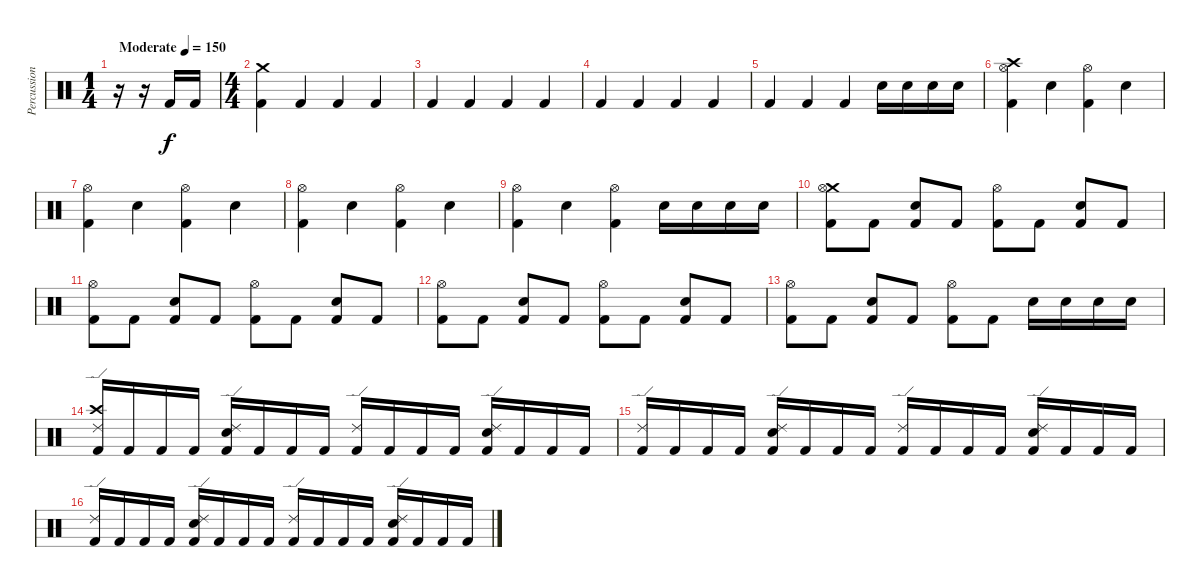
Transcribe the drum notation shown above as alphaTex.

\track ("Percussion" "Percussion") {instrument percussion}
\staff {score}
\articulation defaults
\ts (1 4)
\tempo (150 "Moderate")
\clef neutral
\ks c
r.16{dy f} r.16 "Kick (hit) 2".16 "Kick (hit) 2".16 |
\ts (4 4)
("Crash medium (hit)" "Kick (hit) 2").4 "Kick (hit) 2".4 "Kick (hit) 2".4 "Kick (hit) 2".4 |
"Kick (hit) 2".4 "Kick (hit) 2".4 "Kick (hit) 2".4 "Kick (hit) 2".4 |
"Kick (hit) 2".4 "Kick (hit) 2".4 "Kick (hit) 2".4 "Kick (hit) 2".4 |
"Kick (hit) 2".4 "Kick (hit) 2".4 "Kick (hit) 2".4 "Snare (hit) 2".16 "Snare (hit) 2".16 "Snare (hit) 2".16 "Snare (hit) 2".16 |
("Crash high (hit)" "Hi-Hat (open)" "Kick (hit) 2").4 "Snare (hit) 2".4 ("Hi-Hat (open)" "Kick (hit) 2").4 "Snare (hit) 2".4 |
("Hi-Hat (open)" "Kick (hit) 2").4 "Snare (hit) 2".4 ("Hi-Hat (open)" "Kick (hit) 2").4 "Snare (hit) 2".4 |
("Hi-Hat (open)" "Kick (hit) 2").4 "Snare (hit) 2".4 ("Hi-Hat (open)" "Kick (hit) 2").4 "Snare (hit) 2".4 |
("Hi-Hat (open)" "Kick (hit) 2").4 "Snare (hit) 2".4 ("Hi-Hat (open)" "Kick (hit) 2").4 "Snare (hit) 2".16 "Snare (hit) 2".16 "Snare (hit) 2".16 "Snare (hit) 2".16 |
("Crash medium (hit)" "Hi-Hat (open)" "Kick (hit) 2").8 "Kick (hit) 2".8 ("Snare (hit) 2" "Kick (hit) 2").8 "Kick (hit) 2".8 ("Hi-Hat (open)" "Kick (hit) 2").8 "Kick (hit) 2".8 ("Snare (hit) 2" "Kick (hit) 2").8 "Kick (hit) 2".8 |
("Hi-Hat (open)" "Kick (hit) 2").8 "Kick (hit) 2".8 ("Snare (hit) 2" "Kick (hit) 2").8 "Kick (hit) 2".8 ("Hi-Hat (open)" "Kick (hit) 2").8 "Kick (hit) 2".8 ("Snare (hit) 2" "Kick (hit) 2").8 "Kick (hit) 2".8 |
("Hi-Hat (open)" "Kick (hit) 2").8 "Kick (hit) 2".8 ("Snare (hit) 2" "Kick (hit) 2").8 "Kick (hit) 2".8 ("Hi-Hat (open)" "Kick (hit) 2").8 "Kick (hit) 2".8 ("Snare (hit) 2" "Kick (hit) 2").8 "Kick (hit) 2".8 |
("Hi-Hat (open)" "Kick (hit) 2").8 "Kick (hit) 2".8 ("Snare (hit) 2" "Kick (hit) 2").8 "Kick (hit) 2".8 ("Hi-Hat (open)" "Kick (hit) 2").8 "Kick (hit) 2".8 "Snare (hit) 2".16 "Snare (hit) 2".16 "Snare (hit) 2".16 "Snare (hit) 2".16 |
("Ride (edge) 2" "Crash high (hit)" "Kick (hit) 2").16 "Kick (hit) 2".16 "Kick (hit) 2".16 "Kick (hit) 2".16 ("Ride (edge) 2" "Snare (hit) 2" "Kick (hit) 2").16 "Kick (hit) 2".16 "Kick (hit) 2".16 "Kick (hit) 2".16 ("Ride (edge) 2" "Kick (hit) 2").16 "Kick (hit) 2".16 "Kick (hit) 2".16 "Kick (hit) 2".16 ("Ride (edge) 2" "Snare (hit) 2" "Kick (hit) 2").16 "Kick (hit) 2".16 "Kick (hit) 2".16 "Kick (hit) 2".16 |
("Ride (edge) 2" "Kick (hit) 2").16 "Kick (hit) 2".16 "Kick (hit) 2".16 "Kick (hit) 2".16 ("Ride (edge) 2" "Snare (hit) 2" "Kick (hit) 2").16 "Kick (hit) 2".16 "Kick (hit) 2".16 "Kick (hit) 2".16 ("Ride (edge) 2" "Kick (hit) 2").16 "Kick (hit) 2".16 "Kick (hit) 2".16 "Kick (hit) 2".16 ("Ride (edge) 2" "Snare (hit) 2" "Kick (hit) 2").16 "Kick (hit) 2".16 "Kick (hit) 2".16 "Kick (hit) 2".16 |
("Ride (edge) 2" "Kick (hit) 2").16 "Kick (hit) 2".16 "Kick (hit) 2".16 "Kick (hit) 2".16 ("Ride (edge) 2" "Snare (hit) 2" "Kick (hit) 2").16 "Kick (hit) 2".16 "Kick (hit) 2".16 "Kick (hit) 2".16 ("Ride (edge) 2" "Kick (hit) 2").16 "Kick (hit) 2".16 "Kick (hit) 2".16 "Kick (hit) 2".16 ("Ride (edge) 2" "Snare (hit) 2" "Kick (hit) 2").16 "Kick (hit) 2".16 "Kick (hit) 2".16 "Kick (hit) 2".16
